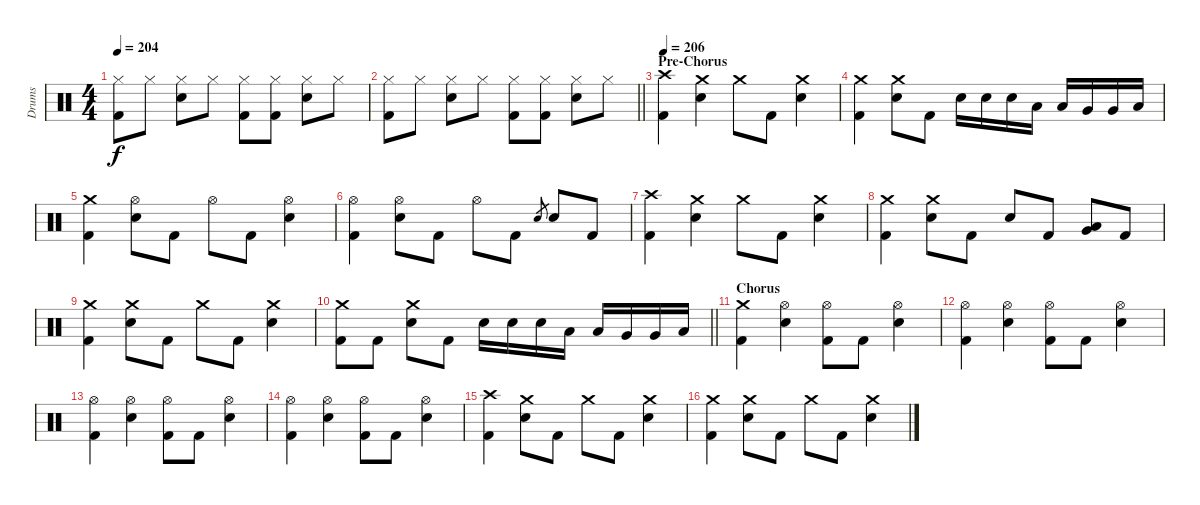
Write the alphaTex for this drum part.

\track ("Drums" "Drums") {instrument percussion}
\staff {score}
\articulation defaults
\ts (4 4)
\tempo 204
\clef neutral
\ks c
("Hi-Hat (closed)" "Kick (hit) 2").8{dy f} "Hi-Hat (closed)".8 ("Hi-Hat (closed)" "Electric Snare (hit)").8 "Hi-Hat (closed)".8 ("Hi-Hat (closed)" "Kick (hit) 2").8 ("Hi-Hat (closed)" "Kick (hit) 2").8 ("Hi-Hat (closed)" "Electric Snare (hit)").8 "Hi-Hat (closed)".8 |
\barLineRight lightlight
("Hi-Hat (closed)" "Kick (hit) 2").8 "Hi-Hat (closed)".8 ("Hi-Hat (closed)" "Electric Snare (hit)").8 "Hi-Hat (closed)".8 ("Hi-Hat (closed)" "Kick (hit) 2").8 ("Hi-Hat (closed)" "Kick (hit) 2").8 ("Hi-Hat (closed)" "Electric Snare (hit)").8 "Hi-Hat (closed)".8 |
\section ("" "Pre-Chorus")
\tempo 206
("Crash high (hit)" "Kick (hit) 2").4 ("Crash medium (hit)" "Electric Snare (hit)").4 "Crash medium (hit)".8 "Kick (hit) 2".8 ("Crash medium (hit)" "Electric Snare (hit)").4 |
("Crash medium (hit)" "Kick (hit) 2").4 ("Crash medium (hit)" "Electric Snare (hit)").8 "Kick (hit) 2".8 "Electric Snare (hit)".16 "Electric Snare (hit)".16 "Electric Snare (hit)".16 "Low Tom (hit)".16 "Low Tom (hit)".16 "Very Low Tom (hit)".16 "Very Low Tom (hit)".16 "Low Floor Tom (hit)".16 |
("Crash medium (hit)" "Kick (hit) 2").4 ("Hi-Hat (open)" "Electric Snare (hit)").8 "Kick (hit) 2".8 "Hi-Hat (open)".8 "Kick (hit) 2".8 ("Hi-Hat (open)" "Electric Snare (hit)").4 |
("Hi-Hat (open)" "Kick (hit) 2").4 ("Hi-Hat (open)" "Electric Snare (hit)").8 "Kick (hit) 2".8 "Hi-Hat (open)".8 "Kick (hit) 2".8 "Electric Snare (hit)".8{gr} "Electric Snare (hit)".8 "Kick (hit) 2".8 |
("Crash high (hit)" "Kick (hit) 2").4 ("Crash medium (hit)" "Electric Snare (hit)").4 "Crash medium (hit)".8 "Kick (hit) 2".8 ("Crash medium (hit)" "Electric Snare (hit)").4 |
("Crash medium (hit)" "Kick (hit) 2").4 ("Crash medium (hit)" "Electric Snare (hit)").8 "Kick (hit) 2".8 "Electric Snare (hit)".8 "Kick (hit) 2".8 ("Low Tom (hit)" "Very Low Tom (hit)").8 "Kick (hit) 2".8 |
("Crash medium (hit)" "Kick (hit) 2").4 ("Crash medium (hit)" "Electric Snare (hit)").8 "Kick (hit) 2".8 "Crash medium (hit)".8 "Kick (hit) 2".8 ("Crash medium (hit)" "Electric Snare (hit)").4 |
\barLineRight lightlight
("Crash medium (hit)" "Kick (hit) 2").8 "Kick (hit) 2".8 ("Crash medium (hit)" "Electric Snare (hit)").8 "Kick (hit) 2".8 "Electric Snare (hit)".16 "Electric Snare (hit)".16 "Electric Snare (hit)".16 "Low Tom (hit)".16 "Low Tom (hit)".16 "Very Low Tom (hit)".16 "Very Low Tom (hit)".16 "Low Floor Tom (hit)".16 |
\section ("" "Chorus")
("Crash medium (hit)" "Kick (hit) 2").4 ("Hi-Hat (open)" "Electric Snare (hit)").4 ("Hi-Hat (open)" "Kick (hit) 2").8 "Kick (hit) 2".8 ("Hi-Hat (open)" "Electric Snare (hit)").4 |
("Hi-Hat (open)" "Kick (hit) 2").4 ("Hi-Hat (open)" "Electric Snare (hit)").4 ("Hi-Hat (open)" "Kick (hit) 2").8 "Kick (hit) 2".8 ("Hi-Hat (open)" "Electric Snare (hit)").4 |
("Hi-Hat (open)" "Kick (hit) 2").4 ("Hi-Hat (open)" "Electric Snare (hit)").4 ("Hi-Hat (open)" "Kick (hit) 2").8 "Kick (hit) 2".8 ("Hi-Hat (open)" "Electric Snare (hit)").4 |
("Hi-Hat (open)" "Kick (hit) 2").4 ("Hi-Hat (open)" "Electric Snare (hit)").4 ("Hi-Hat (open)" "Kick (hit) 2").8 "Kick (hit) 2".8 ("Hi-Hat (open)" "Electric Snare (hit)").4 |
("Crash high (hit)" "Kick (hit) 2").4 ("Crash medium (hit)" "Electric Snare (hit)").8 "Kick (hit) 2".8 "Crash medium (hit)".8 "Kick (hit) 2".8 ("Crash medium (hit)" "Electric Snare (hit)").4 |
("Crash medium (hit)" "Kick (hit) 2").4 ("Crash medium (hit)" "Electric Snare (hit)").8 "Kick (hit) 2".8 "Crash medium (hit)".8 "Kick (hit) 2".8 ("Crash medium (hit)" "Electric Snare (hit)").4
